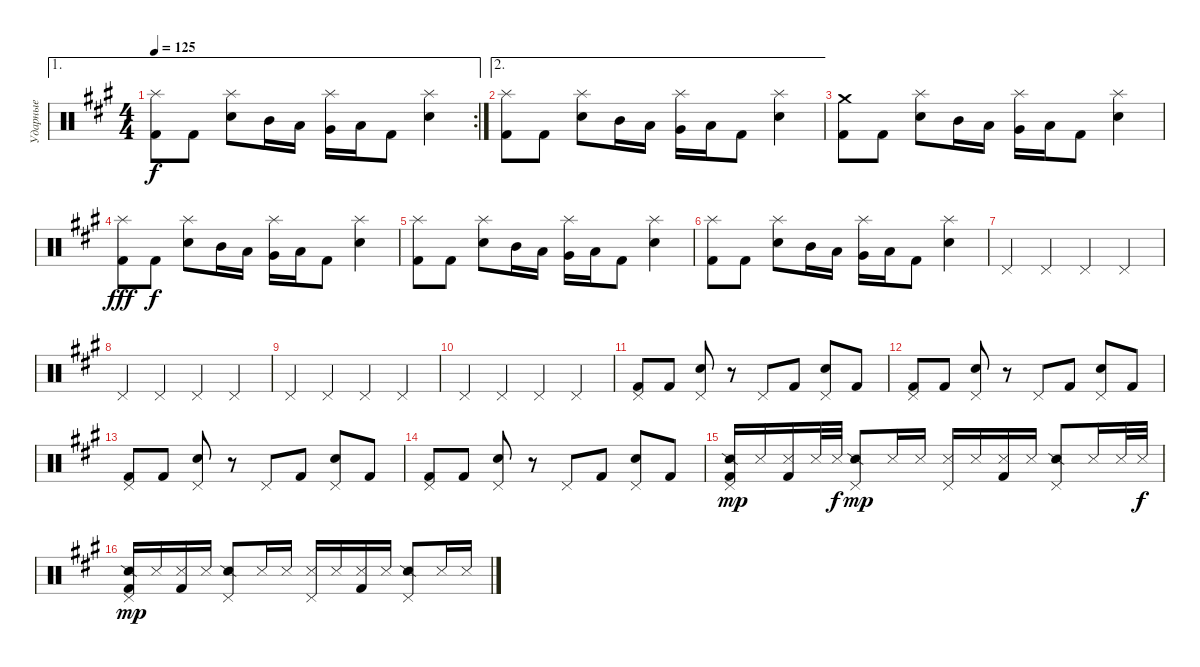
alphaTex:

\track ("Ударные" "Ударные") {instrument percussion}
\staff {score}
\articulation defaults
\ae 1
\rc 2
\ts (4 4)
\tempo 125
\clef neutral
\ks a
("Splash (hit)" "Kick (hit) 2").8{dy f} "Kick (hit) 2".8 ("Splash (hit)" "Snare (hit) 2").8 "Mid Tom (hit)".16 "Low Tom (hit)".16 ("Splash (hit)" "Very Low Tom (hit)").16 "Low Floor Tom (hit)".16 "Kick (hit) 2".8 ("Splash (hit)" "Snare (hit) 2").4 |
\ae 2
("Splash (hit)" "Kick (hit) 2").8 "Kick (hit) 2".8 ("Splash (hit)" "Snare (hit) 2").8 "Mid Tom (hit)".16 "Low Tom (hit)".16 ("Splash (hit)" "Very Low Tom (hit)").16 "Low Floor Tom (hit)".16 "Kick (hit) 2".8 ("Splash (hit)" "Snare (hit) 2").4 |
("Crash medium (hit)" "Kick (hit) 2").8 "Kick (hit) 2".8 ("Splash (hit)" "Snare (hit) 2").8 "Mid Tom (hit)".16 "Low Tom (hit)".16 ("Splash (hit)" "Very Low Tom (hit)").16 "Low Floor Tom (hit)".16 "Kick (hit) 2".8 ("Splash (hit)" "Snare (hit) 2").4 |
("Splash (hit)" "Kick (hit) 2").8{dy fff} "Kick (hit) 2".8{dy f} ("Splash (hit)" "Snare (hit) 2").8 "Mid Tom (hit)".16 "Low Tom (hit)".16 ("Splash (hit)" "Very Low Tom (hit)").16 "Low Floor Tom (hit)".16 "Kick (hit) 2".8 ("Splash (hit)" "Snare (hit) 2").4 |
("Splash (hit)" "Kick (hit) 2").8 "Kick (hit) 2".8 ("Splash (hit)" "Snare (hit) 2").8 "Mid Tom (hit)".16 "Low Tom (hit)".16 ("Splash (hit)" "Very Low Tom (hit)").16 "Low Floor Tom (hit)".16 "Kick (hit) 2".8 ("Splash (hit)" "Snare (hit) 2").4 |
("Splash (hit)" "Kick (hit) 2").8 "Kick (hit) 2".8 ("Splash (hit)" "Snare (hit) 2").8 "Mid Tom (hit)".16 "Low Tom (hit)".16 ("Splash (hit)" "Very Low Tom (hit)").16 "Low Floor Tom (hit)".16 "Kick (hit) 2".8 ("Splash (hit)" "Snare (hit) 2").4 |
"Pedal Hi-Hat (hit)".4 "Pedal Hi-Hat (hit)".4 "Pedal Hi-Hat (hit)".4 "Pedal Hi-Hat (hit)".4 |
"Pedal Hi-Hat (hit)".4 "Pedal Hi-Hat (hit)".4 "Pedal Hi-Hat (hit)".4 "Pedal Hi-Hat (hit)".4 |
"Pedal Hi-Hat (hit)".4 "Pedal Hi-Hat (hit)".4 "Pedal Hi-Hat (hit)".4 "Pedal Hi-Hat (hit)".4 |
"Pedal Hi-Hat (hit)".4 "Pedal Hi-Hat (hit)".4 "Pedal Hi-Hat (hit)".4 "Pedal Hi-Hat (hit)".4 |
("Pedal Hi-Hat (hit)" "Kick (hit) 2").8 "Kick (hit) 2".8 ("Pedal Hi-Hat (hit)" "Snare (hit) 2").8 r.8 "Pedal Hi-Hat (hit)".8 "Kick (hit) 2".8 ("Pedal Hi-Hat (hit)" "Snare (hit) 2").8 "Kick (hit) 2".8 |
("Pedal Hi-Hat (hit)" "Kick (hit) 2").8 "Kick (hit) 2".8 ("Pedal Hi-Hat (hit)" "Snare (hit) 2").8 r.8 "Pedal Hi-Hat (hit)".8 "Kick (hit) 2".8 ("Pedal Hi-Hat (hit)" "Snare (hit) 2").8 "Kick (hit) 2".8 |
("Pedal Hi-Hat (hit)" "Kick (hit) 2").8 "Kick (hit) 2".8 ("Pedal Hi-Hat (hit)" "Snare (hit) 2").8 r.8 "Pedal Hi-Hat (hit)".8 "Kick (hit) 2".8 ("Pedal Hi-Hat (hit)" "Snare (hit) 2").8 "Kick (hit) 2".8 |
("Pedal Hi-Hat (hit)" "Kick (hit) 2").8 "Kick (hit) 2".8 ("Pedal Hi-Hat (hit)" "Snare (hit) 2").8 r.8 "Pedal Hi-Hat (hit)".8 "Kick (hit) 2".8 ("Pedal Hi-Hat (hit)" "Snare (hit) 2").8 "Kick (hit) 2".8 |
("Snare (side stick) 2" "Pedal Hi-Hat (hit)" "Kick (hit) 2").16{dy mp} "Metronome (hit)".16 ("Metronome (hit)" "Kick (hit) 2").16 "Metronome (hit)".32 "Metronome (hit)".32{dy f} ("Snare (side stick) 2" "Pedal Hi-Hat (hit)").8{dy mp} "Metronome (hit)".16 "Metronome (hit)".16 ("Metronome (hit)" "Pedal Hi-Hat (hit)").16 "Metronome (hit)".16 ("Metronome (hit)" "Kick (hit) 2").16 "Metronome (hit)".16 ("Snare (side stick) 2" "Pedal Hi-Hat (hit)").8 "Metronome (hit)".16 "Metronome (hit)".32 "Metronome (hit)".32{dy f} |
("Snare (side stick) 2" "Pedal Hi-Hat (hit)" "Kick (hit) 2").16{dy mp} "Metronome (hit)".16 ("Metronome (hit)" "Kick (hit) 2").16 "Metronome (hit)".16 ("Snare (side stick) 2" "Pedal Hi-Hat (hit)").8 "Metronome (hit)".16 "Metronome (hit)".16 ("Metronome (hit)" "Pedal Hi-Hat (hit)").16 "Metronome (hit)".16 ("Metronome (hit)" "Kick (hit) 2").16 "Metronome (hit)".16 ("Snare (side stick) 2" "Pedal Hi-Hat (hit)").8 "Metronome (hit)".16 "Metronome (hit)".16
